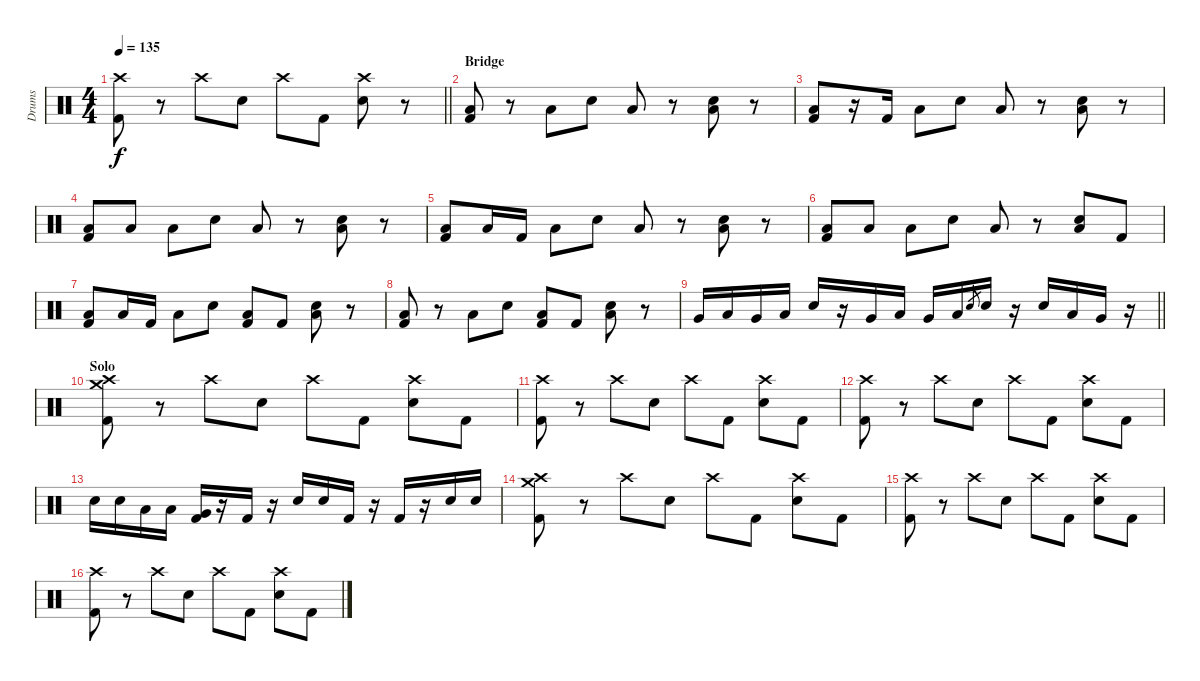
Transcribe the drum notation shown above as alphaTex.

\track ("Drums" "Drums") {instrument percussion}
\staff {score}
\articulation defaults
\ts (4 4)
\tempo 135
\clef neutral
\barLineRight lightlight
\ks c
("Crash high (hit)" "Kick (hit) 2").8{dy f} r.8 "Crash high (hit)".8 "Electric Snare (hit)".8 "Crash high (hit)".8 "Kick (hit) 2".8 ("Crash high (hit)" "Electric Snare (hit)").8 r.8 |
\section ("" "Bridge")
("Low Floor Tom (hit)" "Kick (hit) 2").8 r.8 "Low Floor Tom (hit)".8 "Electric Snare (hit)".8 "Low Floor Tom (hit)".8 r.8 ("Electric Snare (hit)" "Low Floor Tom (hit)").8 r.8 |
("Low Floor Tom (hit)" "Kick (hit) 2").8 r.16 "Kick (hit) 2".16 "Low Floor Tom (hit)".8 "Electric Snare (hit)".8 "Low Floor Tom (hit)".8 r.8 ("Electric Snare (hit)" "Low Floor Tom (hit)").8 r.8 |
("Low Floor Tom (hit)" "Kick (hit) 2").8 "Low Floor Tom (hit)".8 "Low Floor Tom (hit)".8 "Electric Snare (hit)".8 "Low Floor Tom (hit)".8 r.8 ("Electric Snare (hit)" "Low Floor Tom (hit)").8 r.8 |
("Low Floor Tom (hit)" "Kick (hit) 2").8 "Low Floor Tom (hit)".16 "Kick (hit) 2".16 "Low Floor Tom (hit)".8 "Electric Snare (hit)".8 "Low Floor Tom (hit)".8 r.8 ("Electric Snare (hit)" "Low Floor Tom (hit)").8 r.8 |
("Low Floor Tom (hit)" "Kick (hit) 2").8 "Low Floor Tom (hit)".8 "Low Floor Tom (hit)".8 "Electric Snare (hit)".8 "Low Floor Tom (hit)".8 r.8 ("Electric Snare (hit)" "Low Floor Tom (hit)").8 "Kick (hit) 2".8 |
("Low Floor Tom (hit)" "Kick (hit) 2").8 "Low Floor Tom (hit)".16 "Kick (hit) 2".16 "Low Floor Tom (hit)".8 "Electric Snare (hit)".8 ("Low Floor Tom (hit)" "Kick (hit) 2").8 "Kick (hit) 2".8 ("Electric Snare (hit)" "Low Floor Tom (hit)").8 r.8 |
("Low Floor Tom (hit)" "Kick (hit) 2").8 r.8 "Low Floor Tom (hit)".8 "Electric Snare (hit)".8 ("Low Floor Tom (hit)" "Kick (hit) 2").8 "Kick (hit) 2".8 ("Electric Snare (hit)" "Low Floor Tom (hit)").8 r.8 |
\barLineRight lightlight "Very Low Tom (hit)".16 "Low Tom (hit)".16 "Very Low Tom (hit)".16 "Low Tom (hit)".16 "Electric Snare (hit)".16
r.16 "Very Low Tom (hit)".16 "Low Tom (hit)".16 "Very Low Tom (hit)".16 "Low Tom (hit)".16 "Electric Snare (hit)".8{gr} "Electric Snare (hit)".16 r.16 "Electric Snare (hit)".16 "Low Tom (hit)".16 "Very Low Tom (hit)".16 r.16 |
\section ("" "Solo")
("Crash high (hit)" "Crash medium (hit)" "Kick (hit) 2").8 r.8 "Crash high (hit)".8 "Electric Snare (hit)".8 "Crash high (hit)".8 "Kick (hit) 2".8 ("Crash high (hit)" "Electric Snare (hit)").8 "Kick (hit) 2".8 |
("Crash high (hit)" "Kick (hit) 2").8 r.8 "Crash high (hit)".8 "Electric Snare (hit)".8 "Crash high (hit)".8 "Kick (hit) 2".8 ("Crash high (hit)" "Electric Snare (hit)").8 "Kick (hit) 2".8 |
("Crash high (hit)" "Kick (hit) 2").8 r.8 "Crash high (hit)".8 "Electric Snare (hit)".8 "Crash high (hit)".8 "Kick (hit) 2".8 ("Crash high (hit)" "Electric Snare (hit)").8 "Kick (hit) 2".8 |
"Electric Snare (hit)".16 "Electric Snare (hit)".16 "Low Tom (hit)".16 "Low Tom (hit)".16 ("Very Low Tom (hit)" "Kick (hit) 2").16 r.16 "Kick (hit) 2".16 r.16 "Electric Snare (hit)".16 "Electric Snare (hit)".16 "Kick (hit) 2".16 r.16 "Kick (hit) 2".16 r.16 "Electric Snare (hit)".16 "Electric Snare (hit)".16 |
("Crash high (hit)" "Crash medium (hit)" "Kick (hit) 2").8 r.8 "Crash high (hit)".8 "Electric Snare (hit)".8 "Crash high (hit)".8 "Kick (hit) 2".8 ("Crash high (hit)" "Electric Snare (hit)").8 "Kick (hit) 2".8 |
("Crash high (hit)" "Kick (hit) 2").8 r.8 "Crash high (hit)".8 "Electric Snare (hit)".8 "Crash high (hit)".8 "Kick (hit) 2".8 ("Crash high (hit)" "Electric Snare (hit)").8 "Kick (hit) 2".8 |
("Crash high (hit)" "Kick (hit) 2").8 r.8 "Crash high (hit)".8 "Electric Snare (hit)".8 "Crash high (hit)".8 "Kick (hit) 2".8 ("Crash high (hit)" "Electric Snare (hit)").8 "Kick (hit) 2".8
